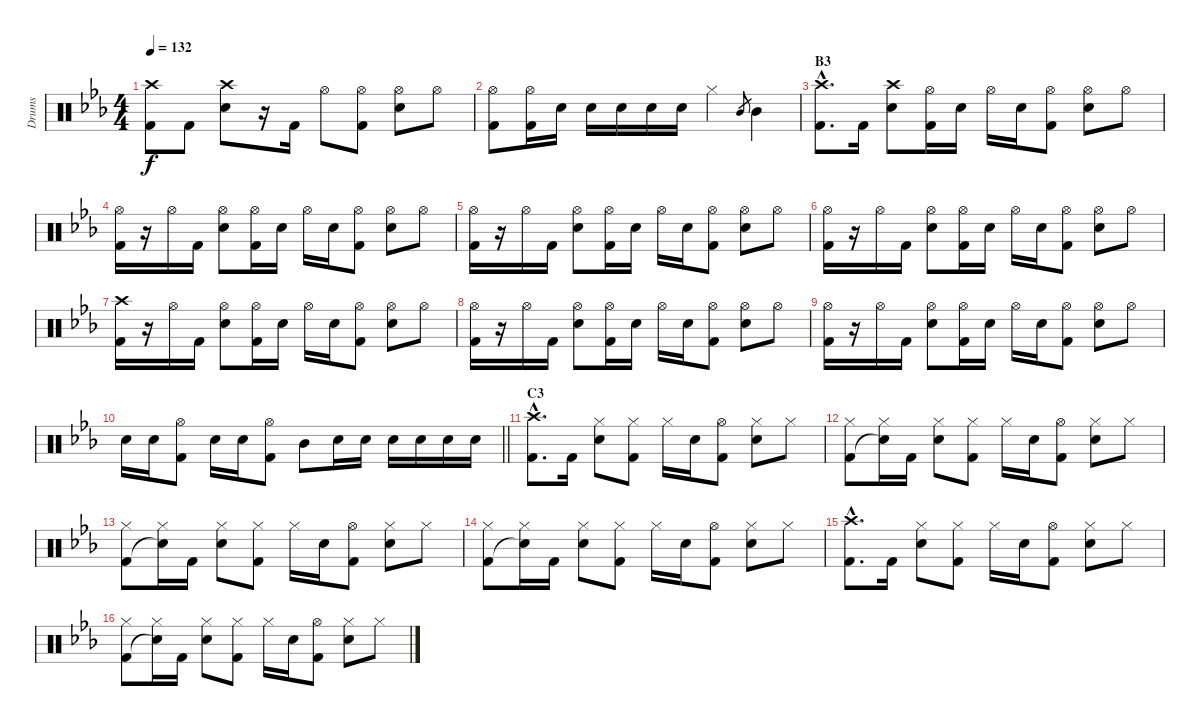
\track ("Drums" "Drums") {instrument percussion}
\staff {score}
\articulation defaults
\ts (4 4)
\tempo 132
\clef neutral
\ks eb
("Crash high (hit)" "Kick (hit) 2").8{dy f} "Kick (hit) 2".8 ("Crash high (hit)" "Snare (hit) 2").8 r.16 "Kick (hit) 2".16 "Hi-Hat (open)".8 ("Hi-Hat (open)" "Kick (hit) 2").8 ("Hi-Hat (open)" "Snare (hit) 2").8 "Hi-Hat (open)".8 |
("Hi-Hat (open)" "Kick (hit) 2").8 ("Hi-Hat (open)" "Kick (hit) 2").16 "Snare (hit) 2".16 "Snare (hit) 2".16 "Snare (hit) 2".16 "Snare (hit) 2".16 "Snare (hit) 2".16 "Hi-Hat (closed)".4 "Mid Tom (hit)".8{gr} "Mid Tom (hit)".4 |
\section ("" "B3")
("Crash high (hit)"{hac} "Kick (hit) 2"{hac}).8{d} "Kick (hit) 2".16 ("Crash high (hit)" "Snare (hit) 2").8 ("Hi-Hat (open)" "Kick (hit) 2").16 "Snare (hit) 2".16 "Hi-Hat (open)".16 "Snare (hit) 2".16 ("Hi-Hat (open)" "Kick (hit) 2").8 ("Hi-Hat (open)" "Snare (hit) 2").8 "Hi-Hat (open)".8 |
("Hi-Hat (open)" "Kick (hit) 2").16 r.16 "Hi-Hat (open)".16 "Kick (hit) 2".16 ("Hi-Hat (open)" "Snare (hit) 2").8 ("Hi-Hat (open)" "Kick (hit) 2").16 "Snare (hit) 2".16 "Hi-Hat (open)".16 "Snare (hit) 2".16 ("Hi-Hat (open)" "Kick (hit) 2").8 ("Hi-Hat (open)" "Snare (hit) 2").8 "Hi-Hat (open)".8 |
("Hi-Hat (open)" "Kick (hit) 2").16 r.16 "Hi-Hat (open)".16 "Kick (hit) 2".16 ("Hi-Hat (open)" "Snare (hit) 2").8 ("Hi-Hat (open)" "Kick (hit) 2").16 "Snare (hit) 2".16 "Hi-Hat (open)".16 "Snare (hit) 2".16 ("Hi-Hat (open)" "Kick (hit) 2").8 ("Hi-Hat (open)" "Snare (hit) 2").8 "Hi-Hat (open)".8 |
("Hi-Hat (open)" "Kick (hit) 2").16 r.16 "Hi-Hat (open)".16 "Kick (hit) 2".16 ("Hi-Hat (open)" "Snare (hit) 2").8 ("Hi-Hat (open)" "Kick (hit) 2").16 "Snare (hit) 2".16 "Hi-Hat (open)".16 "Snare (hit) 2".16 ("Hi-Hat (open)" "Kick (hit) 2").8 ("Hi-Hat (open)" "Snare (hit) 2").8 "Hi-Hat (open)".8 |
("Crash high (hit)" "Kick (hit) 2").16 r.16 "Hi-Hat (open)".16 "Kick (hit) 2".16 ("Hi-Hat (open)" "Snare (hit) 2").8 ("Hi-Hat (open)" "Kick (hit) 2").16 "Snare (hit) 2".16 "Hi-Hat (open)".16 "Snare (hit) 2".16 ("Hi-Hat (open)" "Kick (hit) 2").8 ("Hi-Hat (open)" "Snare (hit) 2").8 "Hi-Hat (open)".8 |
("Hi-Hat (open)" "Kick (hit) 2").16 r.16 "Hi-Hat (open)".16 "Kick (hit) 2".16 ("Hi-Hat (open)" "Snare (hit) 2").8 ("Hi-Hat (open)" "Kick (hit) 2").16 "Snare (hit) 2".16 "Hi-Hat (open)".16 "Snare (hit) 2".16 ("Hi-Hat (open)" "Kick (hit) 2").8 ("Hi-Hat (open)" "Snare (hit) 2").8 "Hi-Hat (open)".8 |
("Hi-Hat (open)" "Kick (hit) 2").16 r.16 "Hi-Hat (open)".16 "Kick (hit) 2".16 ("Hi-Hat (open)" "Snare (hit) 2").8 ("Hi-Hat (open)" "Kick (hit) 2").16 "Snare (hit) 2".16 "Hi-Hat (open)".16 "Snare (hit) 2".16 ("Hi-Hat (open)" "Kick (hit) 2").8 ("Hi-Hat (open)" "Snare (hit) 2").8 "Hi-Hat (open)".8 |
\barLineRight lightlight "Snare (hit) 2".16 "Snare (hit) 2".16
("Hi-Hat (open)" "Kick (hit) 2").8 "Snare (hit) 2".16 "Snare (hit) 2".16 ("Hi-Hat (open)" "Kick (hit) 2").8 "Mid Tom (hit)".8 "Snare (hit) 2".16 "Snare (hit) 2".16 "Snare (hit) 2".16 "Snare (hit) 2".16 "Snare (hit) 2".16 "Snare (hit) 2".16 |
\section ("" "C3")
("Crash high (hit)"{hac} "Kick (hit) 2"{hac}).8{d} "Kick (hit) 2".16 ("Hi-Hat (closed)" "Snare (hit) 2").8 ("Hi-Hat (closed)" "Kick (hit) 2").8 "Hi-Hat (closed)".16 "Snare (hit) 2".16 ("Hi-Hat (open)" "Kick (hit) 2").8 ("Hi-Hat (closed)" "Snare (hit) 2").8 "Hi-Hat (closed)".8 |
("Hi-Hat (closed)" "Kick (hit) 2").8 ("Hi-Hat (closed)" "Snare (hit)"{t}).16 "Kick (hit) 2".16 ("Hi-Hat (closed)" "Snare (hit) 2").8 ("Hi-Hat (closed)" "Kick (hit) 2").8 "Hi-Hat (closed)".16 "Snare (hit) 2".16 ("Hi-Hat (open)" "Kick (hit) 2").8 ("Hi-Hat (closed)" "Snare (hit) 2").8 "Hi-Hat (closed)".8 |
("Hi-Hat (closed)" "Kick (hit) 2").8 ("Hi-Hat (closed)" "Snare (hit)"{t}).16 "Kick (hit) 2".16 ("Hi-Hat (closed)" "Snare (hit) 2").8 ("Hi-Hat (closed)" "Kick (hit) 2").8 "Hi-Hat (closed)".16 "Snare (hit) 2".16 ("Hi-Hat (open)" "Kick (hit) 2").8 ("Hi-Hat (closed)" "Snare (hit) 2").8 "Hi-Hat (closed)".8 |
("Hi-Hat (closed)" "Kick (hit) 2").8 ("Hi-Hat (closed)" "Snare (hit)"{t}).16 "Kick (hit) 2".16 ("Hi-Hat (closed)" "Snare (hit) 2").8 ("Hi-Hat (closed)" "Kick (hit) 2").8 "Hi-Hat (closed)".16 "Snare (hit) 2".16 ("Hi-Hat (open)" "Kick (hit) 2").8 ("Hi-Hat (closed)" "Snare (hit) 2").8 "Hi-Hat (closed)".8 |
("Crash high (hit)"{hac} "Kick (hit) 2"{hac}).8{d} "Kick (hit) 2".16 ("Hi-Hat (closed)" "Snare (hit) 2").8 ("Hi-Hat (closed)" "Kick (hit) 2").8 "Hi-Hat (closed)".16 "Snare (hit) 2".16 ("Hi-Hat (open)" "Kick (hit) 2").8 ("Hi-Hat (closed)" "Snare (hit) 2").8 "Hi-Hat (closed)".8 |
("Hi-Hat (closed)" "Kick (hit) 2").8 ("Hi-Hat (closed)" "Snare (hit)"{t}).16 "Kick (hit) 2".16 ("Hi-Hat (closed)" "Snare (hit) 2").8 ("Hi-Hat (closed)" "Kick (hit) 2").8 "Hi-Hat (closed)".16 "Snare (hit) 2".16 ("Hi-Hat (open)" "Kick (hit) 2").8 ("Hi-Hat (closed)" "Snare (hit) 2").8 "Hi-Hat (closed)".8
